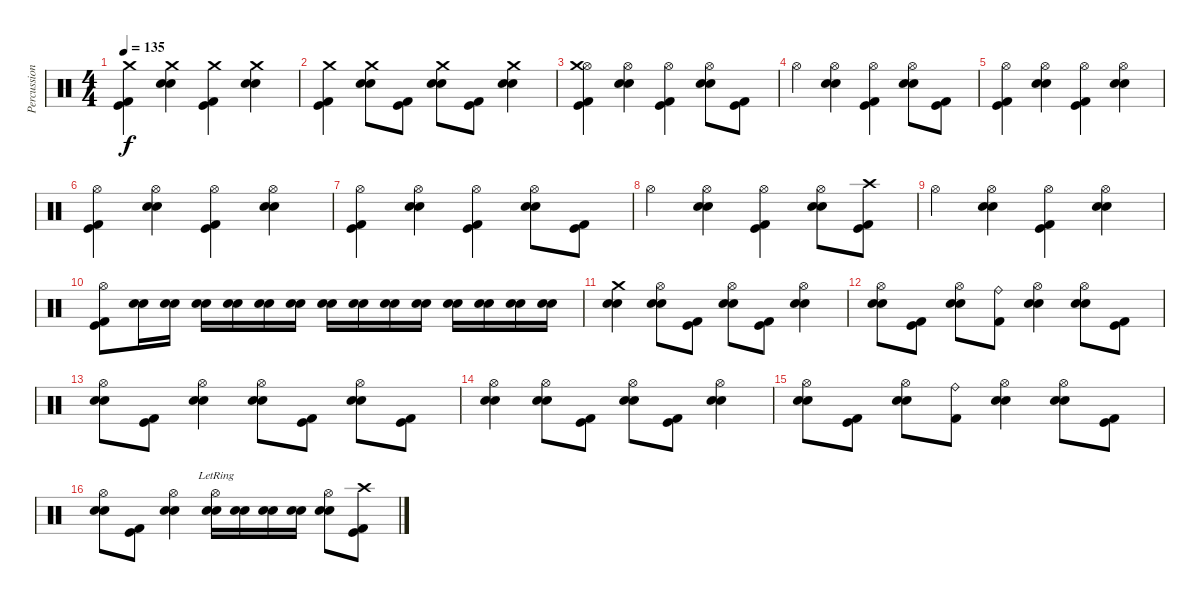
\track ("Percussion" "Percussion") {instrument percussion}
\staff {score}
\articulation defaults
\ts (4 4)
\tempo 135
\clef neutral
\ks c
("Crash medium (hit)" "Kick (hit)" "Kick (hit) 2").4{dy f} ("Crash medium (hit)" "Electric Snare (hit)" "Metronome (bell)").4 ("Crash medium (hit)" "Kick (hit)" "Kick (hit) 2").4 ("Crash medium (hit)" "Electric Snare (hit)" "Metronome (bell)").4 |
("Crash medium (hit)" "Kick (hit)" "Kick (hit) 2").4 ("Crash medium (hit)" "Electric Snare (hit)" "Metronome (bell)").8 ("Kick (hit)" "Kick (hit) 2").8 ("Crash medium (hit)" "Electric Snare (hit)" "Metronome (bell)").8 ("Kick (hit)" "Kick (hit) 2").8 ("Crash medium (hit)" "Electric Snare (hit)" "Metronome (bell)").4 |
("Hi-Hat (open)" "Crash medium (hit)" "Kick (hit)" "Kick (hit) 2").4 ("Hi-Hat (open)" "Electric Snare (hit)" "Metronome (bell)").4 ("Hi-Hat (open)" "Kick (hit)" "Kick (hit) 2").4 ("Hi-Hat (open)" "Electric Snare (hit)" "Metronome (bell)").8 ("Kick (hit)" "Kick (hit) 2").8 |
"Hi-Hat (open)".4 ("Hi-Hat (open)" "Electric Snare (hit)" "Metronome (bell)").4 ("Hi-Hat (open)" "Kick (hit)" "Kick (hit) 2").4 ("Hi-Hat (open)" "Electric Snare (hit)" "Metronome (bell)").8 ("Kick (hit)" "Kick (hit) 2").8 |
("Hi-Hat (open)" "Kick (hit)" "Kick (hit) 2").4 ("Hi-Hat (open)" "Electric Snare (hit)" "Metronome (bell)").4 ("Hi-Hat (open)" "Kick (hit)" "Kick (hit) 2").4 ("Hi-Hat (open)" "Electric Snare (hit)" "Metronome (bell)").4 |
("Hi-Hat (open)" "Kick (hit)" "Kick (hit) 2").4 ("Hi-Hat (open)" "Electric Snare (hit)" "Metronome (bell)").4 ("Hi-Hat (open)" "Kick (hit)" "Kick (hit) 2").4 ("Hi-Hat (open)" "Electric Snare (hit)" "Metronome (bell)").4 |
("Hi-Hat (open)" "Kick (hit)" "Kick (hit) 2").4 ("Hi-Hat (open)" "Electric Snare (hit)" "Metronome (bell)").4 ("Hi-Hat (open)" "Kick (hit)" "Kick (hit) 2").4 ("Hi-Hat (open)" "Electric Snare (hit)" "Metronome (bell)").8 ("Kick (hit)" "Kick (hit) 2").8 |
"Hi-Hat (open)".4 ("Hi-Hat (open)" "Electric Snare (hit)" "Metronome (bell)").4 ("Hi-Hat (open)" "Kick (hit)" "Kick (hit) 2").4 ("Hi-Hat (open)" "Electric Snare (hit)" "Metronome (bell)").8 ("Crash high (hit)" "Kick (hit)" "Kick (hit) 2").8 |
"Hi-Hat (open)".4 ("Hi-Hat (open)" "Electric Snare (hit)" "Metronome (bell)").4 ("Hi-Hat (open)" "Kick (hit)" "Kick (hit) 2").4 ("Hi-Hat (open)" "Electric Snare (hit)" "Metronome (bell)").4 |
("Hi-Hat (open)" "Kick (hit)" "Kick (hit) 2").8 ("Electric Snare (hit)" "Metronome (bell)").16 ("Electric Snare (hit)" "Metronome (bell)").16 ("Electric Snare (hit)" "Metronome (bell)").16 ("Electric Snare (hit)" "Metronome (bell)").16 ("Electric Snare (hit)" "Metronome (bell)").16 ("Electric Snare (hit)" "Metronome (bell)").16 ("Electric Snare (hit)" "Metronome (bell)").16 ("Electric Snare (hit)" "Metronome (bell)").16 ("Electric Snare (hit)" "Metronome (bell)").16 ("Electric Snare (hit)" "Metronome (bell)").16 ("Electric Snare (hit)" "Metronome (bell)").16 ("Electric Snare (hit)" "Metronome (bell)").16 ("Electric Snare (hit)" "Metronome (bell)").16 ("Electric Snare (hit)" "Metronome (bell)").16 |
("Crash medium (hit)" "Electric Snare (hit)" "Metronome (bell)").4 ("Hi-Hat (open)" "Electric Snare (hit)" "Metronome (bell)").8 ("Kick (hit)" "Kick (hit) 2").8 ("Hi-Hat (open)" "Electric Snare (hit)" "Metronome (bell)").8 ("Kick (hit)" "Kick (hit) 2").8 ("Hi-Hat (open)" "Electric Snare (hit)" "Metronome (bell)").4 |
("Hi-Hat (open)" "Electric Snare (hit)" "Metronome (bell)").8 ("Kick (hit)" "Kick (hit) 2").8 ("Hi-Hat (open)" "Electric Snare (hit)" "Metronome (bell)").8 ("Ride (bell)" "Kick (hit) 2").8 ("Hi-Hat (open)" "Electric Snare (hit)" "Metronome (bell)").4 ("Hi-Hat (open)" "Electric Snare (hit)" "Metronome (bell)").8 ("Kick (hit)" "Kick (hit) 2").8 |
("Hi-Hat (open)" "Electric Snare (hit)" "Metronome (bell)").8 ("Kick (hit)" "Kick (hit) 2").8 ("Hi-Hat (open)" "Electric Snare (hit)" "Metronome (bell)").4 ("Hi-Hat (open)" "Electric Snare (hit)" "Metronome (bell)").8 ("Kick (hit)" "Kick (hit) 2").8 ("Hi-Hat (open)" "Electric Snare (hit)" "Metronome (bell)").8 ("Kick (hit)" "Kick (hit) 2").8 |
("Hi-Hat (open)" "Electric Snare (hit)" "Metronome (bell)").4 ("Hi-Hat (open)" "Electric Snare (hit)" "Metronome (bell)").8 ("Kick (hit)" "Kick (hit) 2").8 ("Hi-Hat (open)" "Electric Snare (hit)" "Metronome (bell)").8 ("Kick (hit)" "Kick (hit) 2").8 ("Hi-Hat (open)" "Electric Snare (hit)" "Metronome (bell)").4 |
("Hi-Hat (open)" "Electric Snare (hit)" "Metronome (bell)").8 ("Kick (hit)" "Kick (hit) 2").8 ("Hi-Hat (open)" "Electric Snare (hit)" "Metronome (bell)").8 ("Ride (bell)" "Kick (hit) 2").8 ("Hi-Hat (open)" "Electric Snare (hit)" "Metronome (bell)").4 ("Hi-Hat (open)" "Electric Snare (hit)" "Metronome (bell)").8 ("Kick (hit)" "Kick (hit) 2").8 |
("Hi-Hat (open)" "Electric Snare (hit)" "Metronome (bell)").8 ("Kick (hit)" "Kick (hit) 2").8 ("Hi-Hat (open)" "Electric Snare (hit)" "Metronome (bell)").4 ("Hi-Hat (open)"{lr} "Electric Snare (hit)" "Metronome (bell)").16 ("Electric Snare (hit)" "Metronome (bell)").16 ("Electric Snare (hit)" "Metronome (bell)").16 ("Electric Snare (hit)" "Metronome (bell)").16 ("Hi-Hat (open)" "Electric Snare (hit)" "Metronome (bell)").8 ("Crash high (hit)" "Kick (hit)" "Kick (hit) 2").8
